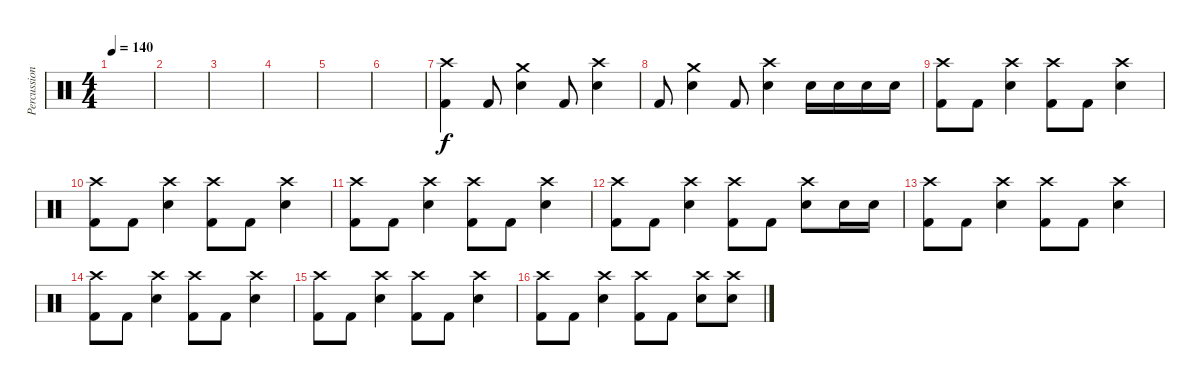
\track ("Percussion" "Percussion") {instrument percussion}
\staff {score}
\articulation defaults
\ts (4 4)
\tempo 140
\clef neutral
\ks c
|
|
|
|
|
|
("Crash high (hit)" "Kick (hit) 2").4 "Kick (hit) 2".8 ("Crash medium (hit)" "Electric Snare (hit)").4 "Kick (hit) 2".8 ("Crash high (hit)" "Electric Snare (hit)").4 |
"Kick (hit) 2".8 ("Crash medium (hit)" "Electric Snare (hit)").4 "Kick (hit) 2".8 ("Crash high (hit)" "Electric Snare (hit)").4 "Electric Snare (hit)".16 "Electric Snare (hit)".16 "Electric Snare (hit)".16 "Electric Snare (hit)".16 |
("Crash high (hit)" "Kick (hit) 2").8 "Kick (hit) 2".8 ("Crash high (hit)" "Electric Snare (hit)").4 ("Crash high (hit)" "Kick (hit) 2").8 "Kick (hit) 2".8 ("Crash high (hit)" "Electric Snare (hit)").4 |
("Crash high (hit)" "Kick (hit) 2").8 "Kick (hit) 2".8 ("Crash high (hit)" "Electric Snare (hit)").4 ("Crash high (hit)" "Kick (hit) 2").8 "Kick (hit) 2".8 ("Crash high (hit)" "Electric Snare (hit)").4 |
("Crash high (hit)" "Kick (hit) 2").8 "Kick (hit) 2".8 ("Crash high (hit)" "Electric Snare (hit)").4 ("Crash high (hit)" "Kick (hit) 2").8 "Kick (hit) 2".8 ("Crash high (hit)" "Electric Snare (hit)").4 |
("Crash high (hit)" "Kick (hit) 2").8 "Kick (hit) 2".8 ("Crash high (hit)" "Electric Snare (hit)").4 ("Crash high (hit)" "Kick (hit) 2").8 "Kick (hit) 2".8 ("Crash high (hit)" "Electric Snare (hit)").8 "Electric Snare (hit)".16 "Electric Snare (hit)".16 |
("Crash high (hit)" "Kick (hit) 2").8 "Kick (hit) 2".8 ("Crash high (hit)" "Electric Snare (hit)").4 ("Crash high (hit)" "Kick (hit) 2").8 "Kick (hit) 2".8 ("Crash high (hit)" "Electric Snare (hit)").4 |
("Crash high (hit)" "Kick (hit) 2").8 "Kick (hit) 2".8 ("Crash high (hit)" "Electric Snare (hit)").4 ("Crash high (hit)" "Kick (hit) 2").8 "Kick (hit) 2".8 ("Crash high (hit)" "Electric Snare (hit)").4 |
("Crash high (hit)" "Kick (hit) 2").8 "Kick (hit) 2".8 ("Crash high (hit)" "Electric Snare (hit)").4 ("Crash high (hit)" "Kick (hit) 2").8 "Kick (hit) 2".8 ("Crash high (hit)" "Electric Snare (hit)").4 |
("Crash high (hit)" "Kick (hit) 2").8 "Kick (hit) 2".8 ("Crash high (hit)" "Electric Snare (hit)").4 ("Crash high (hit)" "Kick (hit) 2").8 "Kick (hit) 2".8 ("Crash high (hit)" "Electric Snare (hit)").8 ("Crash high (hit)" "Electric Snare (hit)").8
